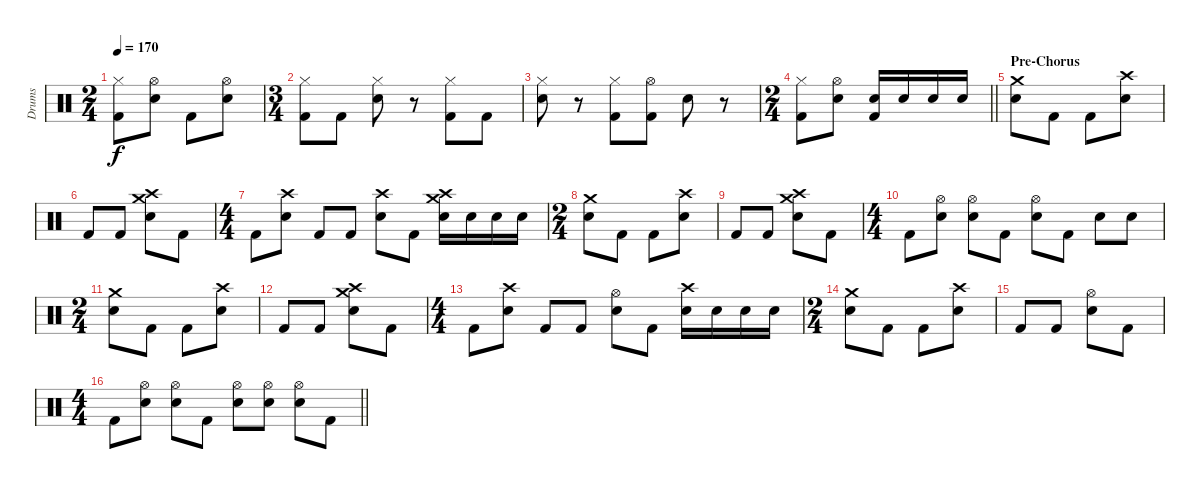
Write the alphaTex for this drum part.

\track ("Drums" "Drums") {instrument percussion}
\staff {score}
\articulation defaults
\ts (2 4)
\tempo 170
\clef neutral
\ks c
("Hi-Hat (closed)" "Kick (hit) 2").8{dy f} ("Hi-Hat (open)" "Electric Snare (hit)").8 "Kick (hit) 2".8 ("Hi-Hat (open)" "Electric Snare (hit)").8 |
\ts (3 4)
("Hi-Hat (closed)" "Kick (hit) 2").8 "Kick (hit) 2".8 ("Hi-Hat (closed)" "Electric Snare (hit)").8 r.8 ("Hi-Hat (closed)" "Kick (hit) 2").8 "Kick (hit) 2".8 |
("Hi-Hat (closed)" "Electric Snare (hit)").8 r.8 ("Hi-Hat (closed)" "Kick (hit) 2").8 ("Hi-Hat (open)" "Kick (hit) 2").8 "Electric Snare (hit)".8 r.8 |
\ts (2 4)
\barLineRight lightlight
("Hi-Hat (closed)" "Kick (hit) 2").8 ("Hi-Hat (open)" "Electric Snare (hit)").8 ("Electric Snare (hit)" "Kick (hit) 2").16 "Electric Snare (hit)".16 "Electric Snare (hit)".16 "Electric Snare (hit)".16 |
\section ("" "Pre-Chorus")
("Crash medium (hit)" "Electric Snare (hit)").8 "Kick (hit) 2".8 "Kick (hit) 2".8 ("Crash high (hit)" "Electric Snare (hit)").8 |
"Kick (hit) 2".8 "Kick (hit) 2".8 ("Crash medium (hit)" "Crash high (hit)" "Electric Snare (hit)").8 "Kick (hit) 2".8 |
\ts (4 4)
"Kick (hit) 2".8 ("Crash high (hit)" "Electric Snare (hit)").8 "Kick (hit) 2".8 "Kick (hit) 2".8 ("Crash high (hit)" "Electric Snare (hit)").8 "Kick (hit) 2".8 ("Crash medium (hit)" "Crash high (hit)" "Electric Snare (hit)").16 "Electric Snare (hit)".16 "Electric Snare (hit)".16 "Electric Snare (hit)".16 |
\ts (2 4)
("Crash medium (hit)" "Electric Snare (hit)").8 "Kick (hit) 2".8 "Kick (hit) 2".8 ("Crash high (hit)" "Electric Snare (hit)").8 |
"Kick (hit) 2".8 "Kick (hit) 2".8 ("Crash medium (hit)" "Crash high (hit)" "Electric Snare (hit)").8 "Kick (hit) 2".8 |
\ts (4 4)
"Kick (hit) 2".8 ("Hi-Hat (open)" "Electric Snare (hit)").8 ("Hi-Hat (open)" "Electric Snare (hit)").8 "Kick (hit) 2".8 ("Hi-Hat (open)" "Electric Snare (hit)").8 "Kick (hit) 2".8 "Electric Snare (hit)".8 "Electric Snare (hit)".8 |
\ts (2 4)
("Crash medium (hit)" "Electric Snare (hit)").8 "Kick (hit) 2".8 "Kick (hit) 2".8 ("Crash high (hit)" "Electric Snare (hit)").8 |
"Kick (hit) 2".8 "Kick (hit) 2".8 ("Crash medium (hit)" "Crash high (hit)" "Electric Snare (hit)").8 "Kick (hit) 2".8 |
\ts (4 4)
"Kick (hit) 2".8 ("Crash high (hit)" "Electric Snare (hit)").8 "Kick (hit) 2".8 "Kick (hit) 2".8 ("Hi-Hat (open)" "Electric Snare (hit)").8 "Kick (hit) 2".8 ("Crash high (hit)" "Electric Snare (hit)").16 "Electric Snare (hit)".16 "Electric Snare (hit)".16 "Electric Snare (hit)".16 |
\ts (2 4)
("Crash medium (hit)" "Electric Snare (hit)").8 "Kick (hit) 2".8 "Kick (hit) 2".8 ("Crash high (hit)" "Electric Snare (hit)").8 |
"Kick (hit) 2".8 "Kick (hit) 2".8 ("Hi-Hat (open)" "Electric Snare (hit)").8 "Kick (hit) 2".8 |
\ts (4 4)
\barLineRight lightlight "Kick (hit) 2".8
("Hi-Hat (open)" "Electric Snare (hit)").8 ("Hi-Hat (open)" "Electric Snare (hit)").8 "Kick (hit) 2".8 ("Hi-Hat (open)" "Electric Snare (hit)").8 ("Hi-Hat (open)" "Electric Snare (hit)").8 ("Hi-Hat (open)" "Electric Snare (hit)").8 "Kick (hit) 2".8
